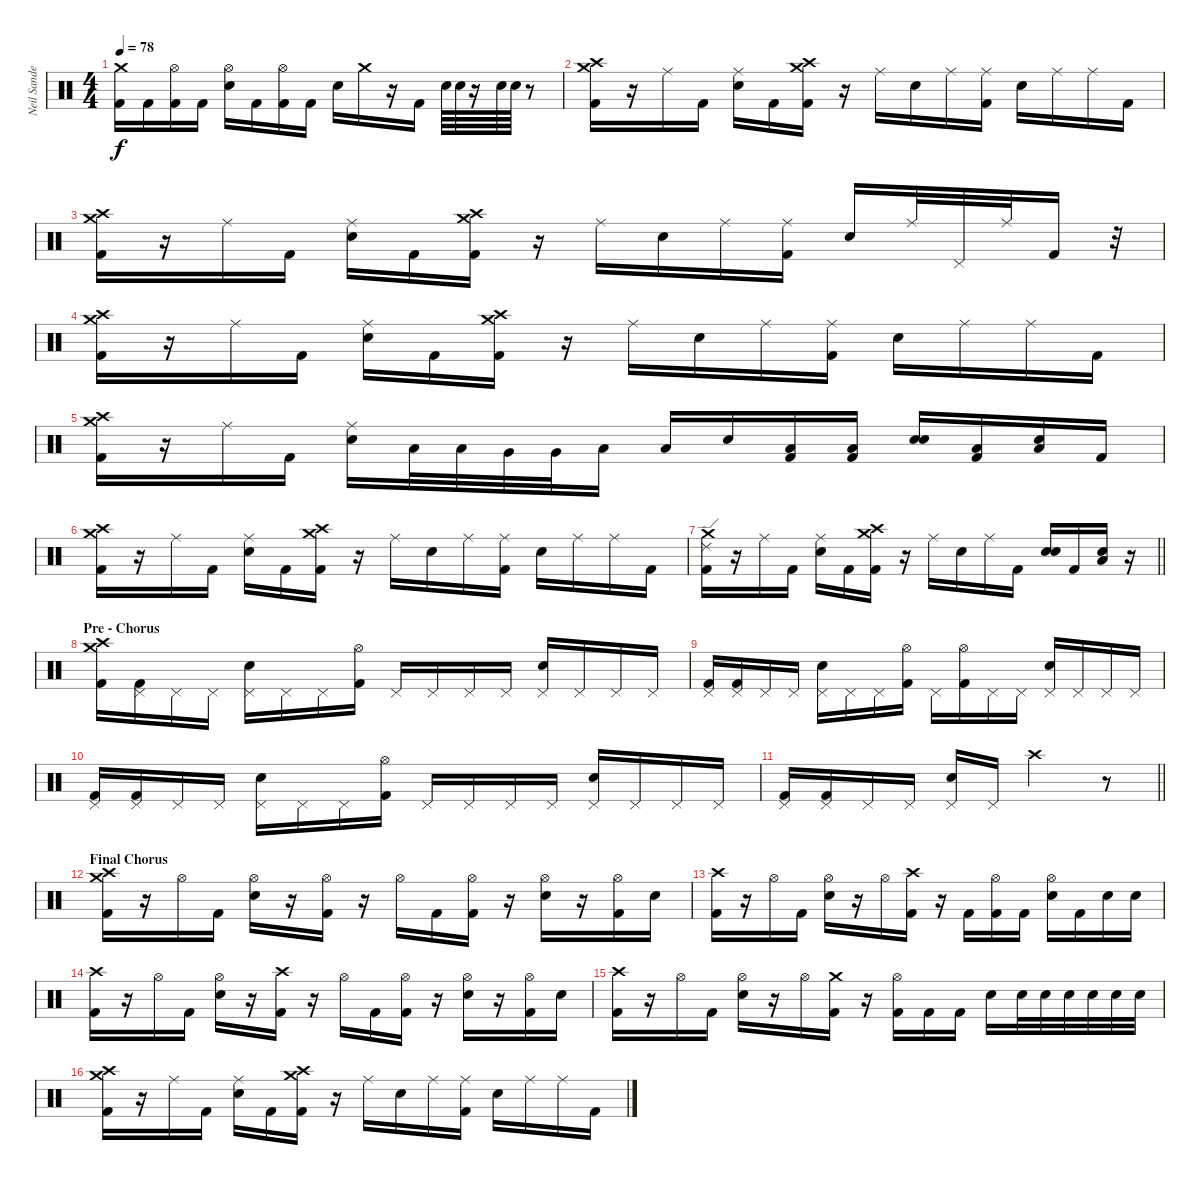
\track ("Neil Sanderson (Percussion)" "Neil Sande") {instrument percussion}
\staff {score}
\articulation defaults
\ts (4 4)
\tempo 78
\clef neutral
\ks c
("Crash medium (hit)" "Kick (hit) 2").16{dy f} "Kick (hit) 2".16 ("Hi-Hat (open)" "Kick (hit) 2").16 "Kick (hit) 2".16 ("Hi-Hat (open)" "Electric Snare (hit)").16 "Kick (hit) 2".16 ("Hi-Hat (open)" "Kick (hit) 2").16 "Kick (hit) 2".16 "Electric Snare (hit)".16 "Crash medium (hit)".16 r.16 "Kick (hit) 2".16 "Snare (hit) 2".64 "Electric Snare (hit)".64 r.16 "Snare (hit) 2".64 "Electric Snare (hit)".64 r.8 |
("Crash medium (hit)" "Crash high (hit)" "Kick (hit) 2").16 r.16 "Ride (middle)".16 "Kick (hit) 2".16 ("Ride (middle)" "Electric Snare (hit)").16 "Kick (hit) 2".16 ("Crash medium (hit)" "Crash high (hit)" "Kick (hit) 2").16 r.16 "Ride (middle)".16 "Electric Snare (hit)".16 "Ride (middle)".16 ("Ride (middle)" "Kick (hit) 2").16 "Electric Snare (hit)".16 "Ride (middle)".16 "Ride (middle)".16 "Kick (hit) 2".16 |
("Crash medium (hit)" "Crash high (hit)" "Kick (hit) 2").16 r.16 "Ride (middle)".16 "Kick (hit) 2".16 ("Ride (middle)" "Electric Snare (hit)").16 "Kick (hit) 2".16 ("Crash medium (hit)" "Crash high (hit)" "Kick (hit) 2").16 r.16 "Ride (middle)".16 "Electric Snare (hit)".16 "Ride (middle)".16 ("Ride (middle)" "Kick (hit) 2").16 "Electric Snare (hit)".16 "Ride (middle)".32 "Pedal Hi-Hat (hit)".32 "Ride (middle)".32 "Kick (hit) 2".16 r.32 |
("Crash medium (hit)" "Crash high (hit)" "Kick (hit) 2").16 r.16 "Ride (middle)".16 "Kick (hit) 2".16 ("Ride (middle)" "Electric Snare (hit)").16 "Kick (hit) 2".16 ("Crash medium (hit)" "Crash high (hit)" "Kick (hit) 2").16 r.16 "Ride (middle)".16 "Electric Snare (hit)".16 "Ride (middle)".16 ("Ride (middle)" "Kick (hit) 2").16 "Electric Snare (hit)".16 "Ride (middle)".16 "Ride (middle)".16 "Kick (hit) 2".16 |
("Crash medium (hit)" "Crash high (hit)" "Kick (hit) 2").16 r.16 "Ride (middle)".16 "Kick (hit) 2".16 ("Ride (middle)" "Electric Snare (hit)").16 "Low Tom (hit)".32 "Low Tom (hit)".32 "Very Low Tom (hit)".32 "Very Low Tom (hit)".32 "Low Floor Tom (hit)".16 "Low Floor Tom (hit)".16 "Electric Snare (hit)".16 ("Low Floor Tom (hit)" "Kick (hit) 2").16 ("Low Floor Tom (hit)" "Kick (hit) 2").16 ("Electric Snare (hit)" "Electric Snare (hit)").16 ("Low Floor Tom (hit)" "Kick (hit) 2").16 ("Low Floor Tom (hit)" "Electric Snare (hit)").16 "Kick (hit) 2".16 |
("Crash medium (hit)" "Crash high (hit)" "Kick (hit) 2").16 r.16 "Ride (middle)".16 "Kick (hit) 2".16 ("Ride (middle)" "Electric Snare (hit)").16 "Kick (hit) 2".16 ("Crash medium (hit)" "Crash high (hit)" "Kick (hit) 2").16 r.16 "Ride (middle)".16 "Electric Snare (hit)".16 "Ride (middle)".16 ("Ride (middle)" "Kick (hit) 2").16 "Electric Snare (hit)".16 "Ride (middle)".16 "Ride (middle)".16 "Kick (hit) 2".16 |
\barLineRight lightlight
("Crash medium (hit)" "Ride (edge) 2" "Kick (hit) 2").16 r.16 "Ride (middle)".16 "Kick (hit) 2".16 ("Ride (middle)" "Electric Snare (hit)").16 "Kick (hit) 2".16 ("Crash medium (hit)" "Crash high (hit)" "Kick (hit) 2").16 r.16 "Ride (middle)".16 "Electric Snare (hit)".16 "Ride (middle)".16 "Kick (hit) 2".16 ("Electric Snare (hit)" "Electric Snare (hit)").16 "Kick (hit) 2".16 ("Low Floor Tom (hit)" "Electric Snare (hit)").16 r.16 |
\section ("" "Pre - Chorus")
("Crash medium (hit)" "Crash high (hit)" "Kick (hit) 2").16 ("Pedal Hi-Hat (hit)" "Kick (hit) 2").16 "Pedal Hi-Hat (hit)".16 "Pedal Hi-Hat (hit)".16 ("Pedal Hi-Hat (hit)" "Electric Snare (hit)").16 "Pedal Hi-Hat (hit)".16 "Pedal Hi-Hat (hit)".16 ("Hi-Hat (open)" "Kick (hit) 2").16 "Pedal Hi-Hat (hit)".16 "Pedal Hi-Hat (hit)".16 "Pedal Hi-Hat (hit)".16 "Pedal Hi-Hat (hit)".16 ("Pedal Hi-Hat (hit)" "Electric Snare (hit)").16 "Pedal Hi-Hat (hit)".16 "Pedal Hi-Hat (hit)".16 "Pedal Hi-Hat (hit)".16 |
("Pedal Hi-Hat (hit)" "Kick (hit) 2").16 ("Pedal Hi-Hat (hit)" "Kick (hit) 2").16 "Pedal Hi-Hat (hit)".16 "Pedal Hi-Hat (hit)".16 ("Pedal Hi-Hat (hit)" "Electric Snare (hit)").16 "Pedal Hi-Hat (hit)".16 "Pedal Hi-Hat (hit)".16 ("Hi-Hat (open)" "Kick (hit) 2").16 "Pedal Hi-Hat (hit)".16 ("Hi-Hat (open)" "Kick (hit) 2").16 "Pedal Hi-Hat (hit)".16 "Pedal Hi-Hat (hit)".16 ("Pedal Hi-Hat (hit)" "Electric Snare (hit)").16 "Pedal Hi-Hat (hit)".16 "Pedal Hi-Hat (hit)".16 "Pedal Hi-Hat (hit)".16 |
("Pedal Hi-Hat (hit)" "Kick (hit) 2").16 ("Pedal Hi-Hat (hit)" "Kick (hit) 2").16 "Pedal Hi-Hat (hit)".16 "Pedal Hi-Hat (hit)".16 ("Pedal Hi-Hat (hit)" "Electric Snare (hit)").16 "Pedal Hi-Hat (hit)".16 "Pedal Hi-Hat (hit)".16 ("Hi-Hat (open)" "Kick (hit) 2").16 "Pedal Hi-Hat (hit)".16 "Pedal Hi-Hat (hit)".16 "Pedal Hi-Hat (hit)".16 "Pedal Hi-Hat (hit)".16 ("Pedal Hi-Hat (hit)" "Electric Snare (hit)").16 "Pedal Hi-Hat (hit)".16 "Pedal Hi-Hat (hit)".16 "Pedal Hi-Hat (hit)".16 |
\barLineRight lightlight
("Pedal Hi-Hat (hit)" "Kick (hit) 2").16 ("Pedal Hi-Hat (hit)" "Kick (hit) 2").16 "Pedal Hi-Hat (hit)".16 "Pedal Hi-Hat (hit)".16 ("Pedal Hi-Hat (hit)" "Electric Snare (hit)").16 "Pedal Hi-Hat (hit)".16 "Crash high (hit)".2 r.8 |
\section ("" "Final Chorus")
("Crash medium (hit)" "Crash high (hit)" "Kick (hit) 2").16 r.16 "Hi-Hat (open)".16 "Kick (hit) 2".16 ("Hi-Hat (open)" "Electric Snare (hit)").16 r.16 ("Hi-Hat (open)" "Kick (hit) 2").16 r.16 "Hi-Hat (open)".16 "Kick (hit) 2".16 ("Hi-Hat (open)" "Kick (hit) 2").16 r.16 ("Hi-Hat (open)" "Electric Snare (hit)").16 r.16 ("Hi-Hat (open)" "Kick (hit) 2").16 "Electric Snare (hit)".16 |
("Crash high (hit)" "Kick (hit) 2").16 r.16 "Hi-Hat (open)".16 "Kick (hit) 2".16 ("Hi-Hat (open)" "Electric Snare (hit)").16 r.16 "Hi-Hat (open)".16 ("Crash high (hit)" "Kick (hit) 2").16 r.16 "Kick (hit) 2".16 ("Hi-Hat (open)" "Kick (hit) 2").16 "Kick (hit) 2".16 ("Hi-Hat (open)" "Electric Snare (hit)").16 "Kick (hit) 2".16 "Electric Snare (hit)".16 "Electric Snare (hit)".16 |
("Crash high (hit)" "Kick (hit) 2").16 r.16 "Hi-Hat (open)".16 "Kick (hit) 2".16 ("Hi-Hat (open)" "Electric Snare (hit)").16 r.16 ("Crash high (hit)" "Kick (hit) 2").16 r.16 "Hi-Hat (open)".16 "Kick (hit) 2".16 ("Hi-Hat (open)" "Kick (hit) 2").16 r.16 ("Hi-Hat (open)" "Electric Snare (hit)").16 r.16 ("Hi-Hat (open)" "Kick (hit) 2").16 "Electric Snare (hit)".16 |
("Crash high (hit)" "Kick (hit) 2").16 r.16 "Hi-Hat (open)".16 "Kick (hit) 2".16 ("Hi-Hat (open)" "Electric Snare (hit)").16 r.16 "Hi-Hat (open)".16 ("Crash medium (hit)" "Kick (hit) 2").16 r.16 ("Hi-Hat (open)" "Kick (hit) 2").16 "Kick (hit) 2".16 "Kick (hit) 2".16 "Electric Snare (hit)".16 "Electric Snare (hit)".32 "Electric Snare (hit)".32 "Electric Snare (hit)".32 "Electric Snare (hit)".32 "Electric Snare (hit)".32 "Electric Snare (hit)".32 |
("Crash medium (hit)" "Crash high (hit)" "Kick (hit) 2").16 r.16 "Ride (middle)".16 "Kick (hit) 2".16 ("Ride (middle)" "Electric Snare (hit)").16 "Kick (hit) 2".16 ("Crash medium (hit)" "Crash high (hit)" "Kick (hit) 2").16 r.16 "Ride (middle)".16 "Electric Snare (hit)".16 "Ride (middle)".16 ("Ride (middle)" "Kick (hit) 2").16 "Electric Snare (hit)".16 "Ride (middle)".16 "Ride (middle)".16 "Kick (hit) 2".16
